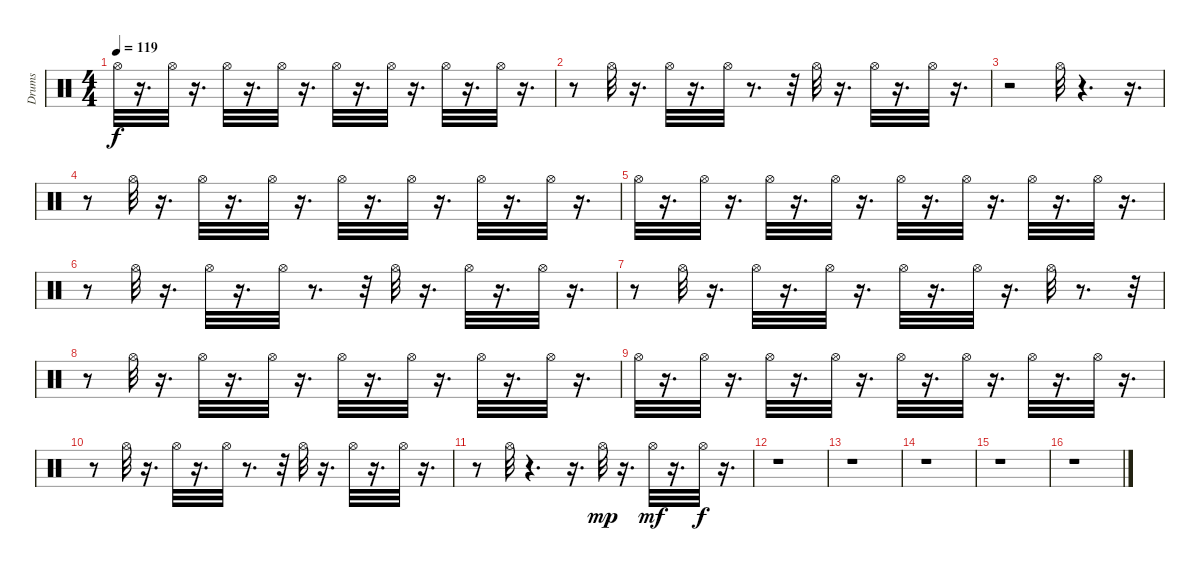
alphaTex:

\track ("Drums" "Drums") {instrument percussion}
\staff {score}
\articulation defaults
\ts (4 4)
\tempo 119
\clef neutral
\ks c "Hi-Hat (open)".32{dy f}
r.16{d} "Hi-Hat (open)".32 r.16{d} "Hi-Hat (open)".32 r.16{d} "Hi-Hat (open)".32 r.16{d} "Hi-Hat (open)".32 r.16{d} "Hi-Hat (open)".32 r.16{d} "Hi-Hat (open)".32 r.16{d} "Hi-Hat (open)".32 r.16{d} |
r.8 "Hi-Hat (open)".32 r.16{d} "Hi-Hat (open)".32 r.16{d} "Hi-Hat (open)".32 r.8{d} r.32 "Hi-Hat (open)".32 r.16{d} "Hi-Hat (open)".32 r.16{d} "Hi-Hat (open)".32 r.16{d} |
r.2 "Hi-Hat (open)".32 r.4{d} r.16{d} |
r.8 "Hi-Hat (open)".32 r.16{d} "Hi-Hat (open)".32 r.16{d} "Hi-Hat (open)".32 r.16{d} "Hi-Hat (open)".32 r.16{d} "Hi-Hat (open)".32 r.16{d} "Hi-Hat (open)".32 r.16{d} "Hi-Hat (open)".32 r.16{d} |
"Hi-Hat (open)".32 r.16{d} "Hi-Hat (open)".32 r.16{d} "Hi-Hat (open)".32 r.16{d} "Hi-Hat (open)".32 r.16{d} "Hi-Hat (open)".32 r.16{d} "Hi-Hat (open)".32 r.16{d} "Hi-Hat (open)".32 r.16{d} "Hi-Hat (open)".32 r.16{d} |
r.8 "Hi-Hat (open)".32 r.16{d} "Hi-Hat (open)".32 r.16{d} "Hi-Hat (open)".32 r.8{d} r.32 "Hi-Hat (open)".32 r.16{d} "Hi-Hat (open)".32 r.16{d} "Hi-Hat (open)".32 r.16{d} |
r.8 "Hi-Hat (open)".32 r.16{d} "Hi-Hat (open)".32 r.16{d} "Hi-Hat (open)".32 r.16{d} "Hi-Hat (open)".32 r.16{d} "Hi-Hat (open)".32 r.16{d} "Hi-Hat (open)".32 r.8{d} r.32 |
r.8 "Hi-Hat (open)".32 r.16{d} "Hi-Hat (open)".32 r.16{d} "Hi-Hat (open)".32 r.16{d} "Hi-Hat (open)".32 r.16{d} "Hi-Hat (open)".32 r.16{d} "Hi-Hat (open)".32 r.16{d} "Hi-Hat (open)".32 r.16{d} |
"Hi-Hat (open)".32 r.16{d} "Hi-Hat (open)".32 r.16{d} "Hi-Hat (open)".32 r.16{d} "Hi-Hat (open)".32 r.16{d} "Hi-Hat (open)".32 r.16{d} "Hi-Hat (open)".32 r.16{d} "Hi-Hat (open)".32 r.16{d} "Hi-Hat (open)".32 r.16{d} |
r.8 "Hi-Hat (open)".32 r.16{d} "Hi-Hat (open)".32 r.16{d} "Hi-Hat (open)".32 r.8{d} r.32 "Hi-Hat (open)".32 r.16{d} "Hi-Hat (open)".32 r.16{d} "Hi-Hat (open)".32 r.16{d} |
r.8 "Hi-Hat (open)".32 r.4{d} r.16{d} "Hi-Hat (open)".32{dy mp} r.16{d} "Hi-Hat (open)".32{dy mf} r.16{d} "Hi-Hat (open)".32{dy f} r.16{d} |
r.1 |
r.1 |
r.1 |
r.1 |
r.1
